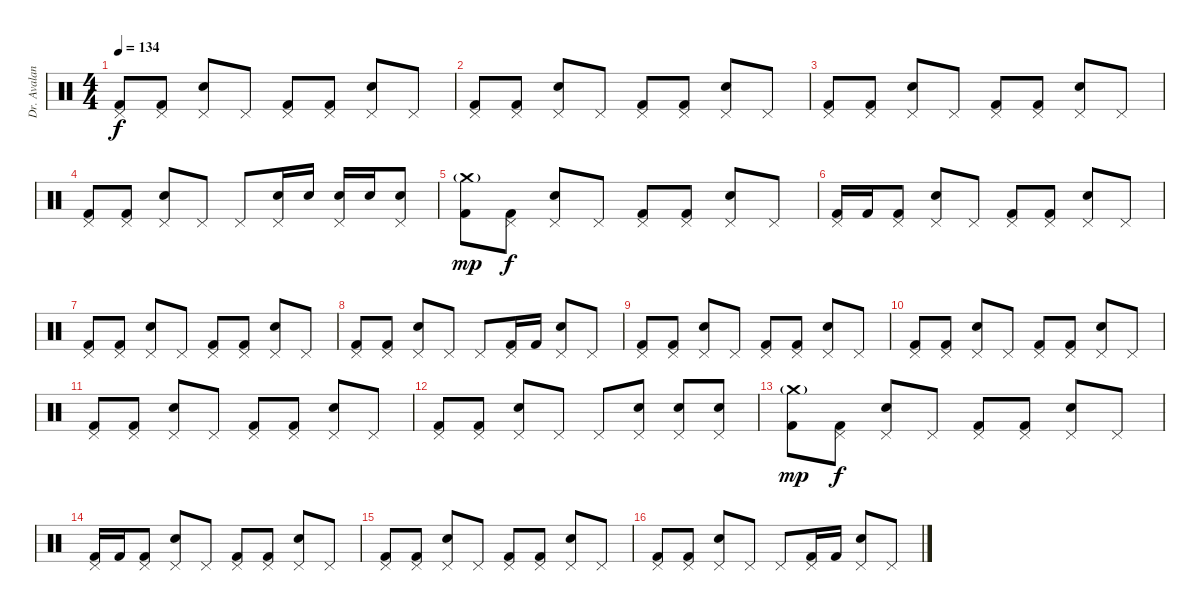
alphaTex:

\track ("Dr. Avalanche" "Dr. Avalan") {instrument percussion}
\staff {score}
\articulation defaults
\ts (4 4)
\tempo 134
\clef neutral
\ks c
("Pedal Hi-Hat (hit)" "Kick (hit) 2").8{dy f} ("Pedal Hi-Hat (hit)" "Kick (hit) 2").8 ("Pedal Hi-Hat (hit)" "Electric Snare (hit)").8 "Pedal Hi-Hat (hit)".8 ("Pedal Hi-Hat (hit)" "Kick (hit) 2").8 ("Pedal Hi-Hat (hit)" "Kick (hit) 2").8 ("Pedal Hi-Hat (hit)" "Electric Snare (hit)").8 "Pedal Hi-Hat (hit)".8 |
("Pedal Hi-Hat (hit)" "Kick (hit) 2").8 ("Pedal Hi-Hat (hit)" "Kick (hit) 2").8 ("Pedal Hi-Hat (hit)" "Electric Snare (hit)").8 "Pedal Hi-Hat (hit)".8 ("Pedal Hi-Hat (hit)" "Kick (hit) 2").8 ("Pedal Hi-Hat (hit)" "Kick (hit) 2").8 ("Pedal Hi-Hat (hit)" "Electric Snare (hit)").8 "Pedal Hi-Hat (hit)".8 |
("Pedal Hi-Hat (hit)" "Kick (hit) 2").8 ("Pedal Hi-Hat (hit)" "Kick (hit) 2").8 ("Pedal Hi-Hat (hit)" "Electric Snare (hit)").8 "Pedal Hi-Hat (hit)".8 ("Pedal Hi-Hat (hit)" "Kick (hit) 2").8 ("Pedal Hi-Hat (hit)" "Kick (hit) 2").8 ("Pedal Hi-Hat (hit)" "Electric Snare (hit)").8 "Pedal Hi-Hat (hit)".8 |
("Pedal Hi-Hat (hit)" "Kick (hit) 2").8 ("Pedal Hi-Hat (hit)" "Kick (hit) 2").8 ("Pedal Hi-Hat (hit)" "Electric Snare (hit)").8 "Pedal Hi-Hat (hit)".8 "Pedal Hi-Hat (hit)".8 ("Pedal Hi-Hat (hit)" "Electric Snare (hit)").16 "Electric Snare (hit)".16 ("Pedal Hi-Hat (hit)" "Electric Snare (hit)").16 "Electric Snare (hit)".16 ("Pedal Hi-Hat (hit)" "Electric Snare (hit)").8 |
("Crash medium (hit)"{g} "Kick (hit) 2").8{dy mp} ("Pedal Hi-Hat (hit)" "Kick (hit) 2").8{dy f} ("Pedal Hi-Hat (hit)" "Electric Snare (hit)").8 "Pedal Hi-Hat (hit)".8 ("Pedal Hi-Hat (hit)" "Kick (hit) 2").8 ("Pedal Hi-Hat (hit)" "Kick (hit) 2").8 ("Pedal Hi-Hat (hit)" "Electric Snare (hit)").8 "Pedal Hi-Hat (hit)".8 |
("Pedal Hi-Hat (hit)" "Kick (hit) 2").16 "Kick (hit) 2".16 ("Pedal Hi-Hat (hit)" "Kick (hit) 2").8 ("Pedal Hi-Hat (hit)" "Electric Snare (hit)").8 "Pedal Hi-Hat (hit)".8 ("Pedal Hi-Hat (hit)" "Kick (hit) 2").8 ("Pedal Hi-Hat (hit)" "Kick (hit) 2").8 ("Pedal Hi-Hat (hit)" "Electric Snare (hit)").8 "Pedal Hi-Hat (hit)".8 |
("Pedal Hi-Hat (hit)" "Kick (hit) 2").8 ("Pedal Hi-Hat (hit)" "Kick (hit) 2").8 ("Pedal Hi-Hat (hit)" "Electric Snare (hit)").8 "Pedal Hi-Hat (hit)".8 ("Pedal Hi-Hat (hit)" "Kick (hit) 2").8 ("Pedal Hi-Hat (hit)" "Kick (hit) 2").8 ("Pedal Hi-Hat (hit)" "Electric Snare (hit)").8 "Pedal Hi-Hat (hit)".8 |
("Pedal Hi-Hat (hit)" "Kick (hit) 2").8 ("Pedal Hi-Hat (hit)" "Kick (hit) 2").8 ("Pedal Hi-Hat (hit)" "Electric Snare (hit)").8 "Pedal Hi-Hat (hit)".8 "Pedal Hi-Hat (hit)".8 ("Pedal Hi-Hat (hit)" "Kick (hit) 2").16 "Kick (hit) 2".16 ("Pedal Hi-Hat (hit)" "Electric Snare (hit)").8 "Pedal Hi-Hat (hit)".8 |
("Pedal Hi-Hat (hit)" "Kick (hit) 2").8 ("Pedal Hi-Hat (hit)" "Kick (hit) 2").8 ("Pedal Hi-Hat (hit)" "Electric Snare (hit)").8 "Pedal Hi-Hat (hit)".8 ("Pedal Hi-Hat (hit)" "Kick (hit) 2").8 ("Pedal Hi-Hat (hit)" "Kick (hit) 2").8 ("Pedal Hi-Hat (hit)" "Electric Snare (hit)").8 "Pedal Hi-Hat (hit)".8 |
("Pedal Hi-Hat (hit)" "Kick (hit) 2").8 ("Pedal Hi-Hat (hit)" "Kick (hit) 2").8 ("Pedal Hi-Hat (hit)" "Electric Snare (hit)").8 "Pedal Hi-Hat (hit)".8 ("Pedal Hi-Hat (hit)" "Kick (hit) 2").8 ("Pedal Hi-Hat (hit)" "Kick (hit) 2").8 ("Pedal Hi-Hat (hit)" "Electric Snare (hit)").8 "Pedal Hi-Hat (hit)".8 |
("Pedal Hi-Hat (hit)" "Kick (hit) 2").8 ("Pedal Hi-Hat (hit)" "Kick (hit) 2").8 ("Pedal Hi-Hat (hit)" "Electric Snare (hit)").8 "Pedal Hi-Hat (hit)".8 ("Pedal Hi-Hat (hit)" "Kick (hit) 2").8 ("Pedal Hi-Hat (hit)" "Kick (hit) 2").8 ("Pedal Hi-Hat (hit)" "Electric Snare (hit)").8 "Pedal Hi-Hat (hit)".8 |
("Pedal Hi-Hat (hit)" "Kick (hit) 2").8 ("Pedal Hi-Hat (hit)" "Kick (hit) 2").8 ("Pedal Hi-Hat (hit)" "Electric Snare (hit)").8 "Pedal Hi-Hat (hit)".8 "Pedal Hi-Hat (hit)".8 ("Pedal Hi-Hat (hit)" "Electric Snare (hit)").8 ("Pedal Hi-Hat (hit)" "Electric Snare (hit)").8 ("Pedal Hi-Hat (hit)" "Electric Snare (hit)").8 |
("Crash medium (hit)"{g} "Kick (hit) 2").8{dy mp} ("Pedal Hi-Hat (hit)" "Kick (hit) 2").8{dy f} ("Pedal Hi-Hat (hit)" "Electric Snare (hit)").8 "Pedal Hi-Hat (hit)".8 ("Pedal Hi-Hat (hit)" "Kick (hit) 2").8 ("Pedal Hi-Hat (hit)" "Kick (hit) 2").8 ("Pedal Hi-Hat (hit)" "Electric Snare (hit)").8 "Pedal Hi-Hat (hit)".8 |
("Pedal Hi-Hat (hit)" "Kick (hit) 2").16 "Kick (hit) 2".16 ("Pedal Hi-Hat (hit)" "Kick (hit) 2").8 ("Pedal Hi-Hat (hit)" "Electric Snare (hit)").8 "Pedal Hi-Hat (hit)".8 ("Pedal Hi-Hat (hit)" "Kick (hit) 2").8 ("Pedal Hi-Hat (hit)" "Kick (hit) 2").8 ("Pedal Hi-Hat (hit)" "Electric Snare (hit)").8 "Pedal Hi-Hat (hit)".8 |
("Pedal Hi-Hat (hit)" "Kick (hit) 2").8 ("Pedal Hi-Hat (hit)" "Kick (hit) 2").8 ("Pedal Hi-Hat (hit)" "Electric Snare (hit)").8 "Pedal Hi-Hat (hit)".8 ("Pedal Hi-Hat (hit)" "Kick (hit) 2").8 ("Pedal Hi-Hat (hit)" "Kick (hit) 2").8 ("Pedal Hi-Hat (hit)" "Electric Snare (hit)").8 "Pedal Hi-Hat (hit)".8 |
("Pedal Hi-Hat (hit)" "Kick (hit) 2").8 ("Pedal Hi-Hat (hit)" "Kick (hit) 2").8 ("Pedal Hi-Hat (hit)" "Electric Snare (hit)").8 "Pedal Hi-Hat (hit)".8 "Pedal Hi-Hat (hit)".8 ("Pedal Hi-Hat (hit)" "Kick (hit) 2").16 "Kick (hit) 2".16 ("Pedal Hi-Hat (hit)" "Electric Snare (hit)").8 "Pedal Hi-Hat (hit)".8
